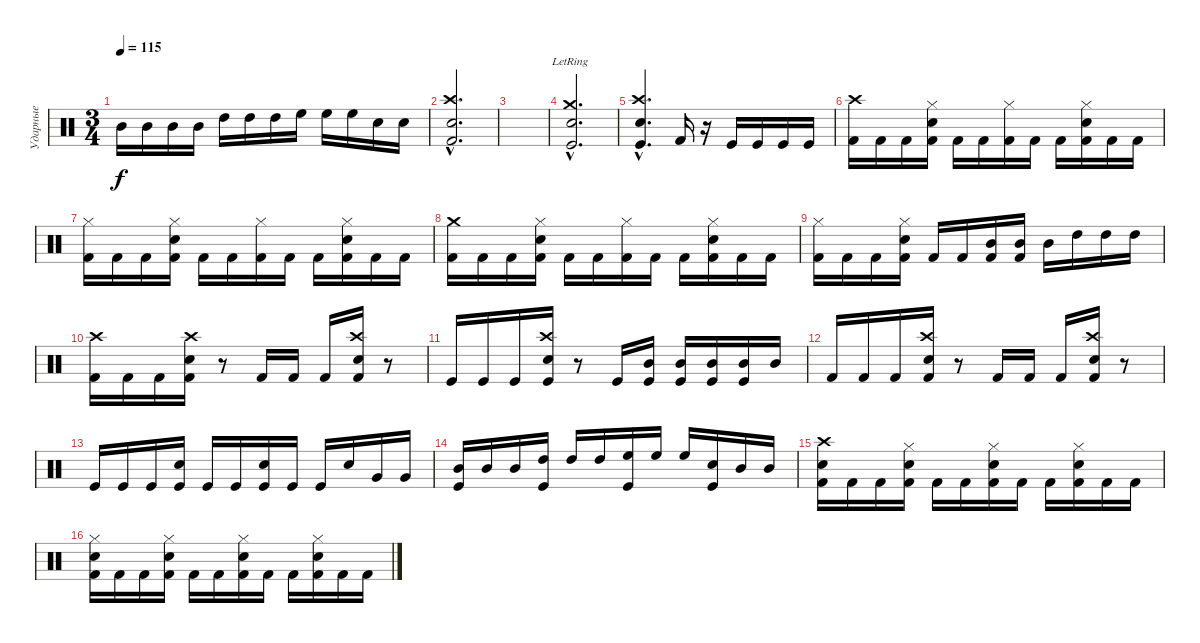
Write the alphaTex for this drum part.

\track ("Ударные" "Ударные") {instrument percussion}
\staff {score}
\articulation defaults
\ts (3 4)
\tempo 115
\clef neutral
\ks c "Mid Tom (hit)".16{dy f} "Mid Tom (hit)".16 "Mid Tom (hit)".16 "Mid Tom (hit)".16 "High Tom (hit)".16 "High Tom (hit)".16 "High Tom (hit)".16 "High Floor Tom (hit)".16 "High Floor Tom (hit)".16 "High Floor Tom (hit)".16 "Electric Snare (hit)".16 "Electric Snare (hit)".16
|
("Crash high (hit)"{hac} "Electric Snare (hit)"{hac} "Kick (hit) 2"{hac}).2{d} |
|
("Crash medium (hit)"{hac lr} "Electric Snare (hit)"{hac lr} "Kick (hit)"{hac lr}).2{d} |
("Crash high (hit)"{hac} "Electric Snare (hit)"{hac} "Kick (hit)"{hac}).4{d} "Kick (hit) 2".16 r.16 "Kick (hit)".16 "Kick (hit)".16 "Kick (hit)".16 "Kick (hit)".16 |
("Crash high (hit)" "Kick (hit) 2").16 "Kick (hit) 2".16 "Kick (hit) 2".16 ("Hi-Hat (closed)" "Electric Snare (hit)" "Kick (hit) 2").16 "Kick (hit) 2".16 "Kick (hit) 2".16 ("Hi-Hat (closed)" "Kick (hit) 2").16 "Kick (hit) 2".16 "Kick (hit) 2".16 ("Hi-Hat (closed)" "Electric Snare (hit)" "Kick (hit) 2").16 "Kick (hit) 2".16 "Kick (hit) 2".16 |
("Hi-Hat (closed)" "Kick (hit) 2").16 "Kick (hit) 2".16 "Kick (hit) 2".16 ("Hi-Hat (closed)" "Electric Snare (hit)" "Kick (hit) 2").16 "Kick (hit) 2".16 "Kick (hit) 2".16 ("Hi-Hat (closed)" "Kick (hit) 2").16 "Kick (hit) 2".16 "Kick (hit) 2".16 ("Hi-Hat (closed)" "Electric Snare (hit)" "Kick (hit) 2").16 "Kick (hit) 2".16 "Kick (hit) 2".16 |
("Crash medium (hit)" "Kick (hit) 2").16 "Kick (hit) 2".16 "Kick (hit) 2".16 ("Hi-Hat (closed)" "Electric Snare (hit)" "Kick (hit) 2").16 "Kick (hit) 2".16 "Kick (hit) 2".16 ("Hi-Hat (closed)" "Kick (hit) 2").16 "Kick (hit) 2".16 "Kick (hit) 2".16 ("Hi-Hat (closed)" "Electric Snare (hit)" "Kick (hit) 2").16 "Kick (hit) 2".16 "Kick (hit) 2".16 |
("Hi-Hat (closed)" "Kick (hit) 2").16 "Kick (hit) 2".16 "Kick (hit) 2".16 ("Hi-Hat (closed)" "Electric Snare (hit)" "Kick (hit) 2").16 "Kick (hit) 2".16 "Kick (hit) 2".16 ("Mid Tom (hit)" "Kick (hit) 2").16 ("Mid Tom (hit)" "Kick (hit) 2").16 "Mid Tom (hit)".16 "High Tom (hit)".16 "High Tom (hit)".16 "High Tom (hit)".16 |
("Crash high (hit)" "Kick (hit) 2").16 "Kick (hit) 2".16 "Kick (hit) 2".16 ("Crash high (hit)" "Electric Snare (hit)" "Kick (hit) 2").16 r.8 "Kick (hit) 2".16 "Kick (hit) 2".16 "Kick (hit) 2".16 ("Crash high (hit)" "Electric Snare (hit)" "Kick (hit) 2").16 r.8 |
"Kick (hit)".16 "Kick (hit)".16 "Kick (hit)".16 ("Crash high (hit)" "Electric Snare (hit)" "Kick (hit)").16 r.8 "Kick (hit)".16 ("Mid Tom (hit)" "Kick (hit)").16 ("Mid Tom (hit)" "Kick (hit)").16 ("Mid Tom (hit)" "Kick (hit)").16 ("Mid Tom (hit)" "Kick (hit)").16 "Mid Tom (hit)".16 |
"Kick (hit) 2".16 "Kick (hit) 2".16 "Kick (hit) 2".16 ("Crash high (hit)" "Electric Snare (hit)" "Kick (hit) 2").16 r.8 "Kick (hit) 2".16 "Kick (hit) 2".16 "Kick (hit) 2".16 ("Crash high (hit)" "Electric Snare (hit)" "Kick (hit) 2").16 r.8 |
"Kick (hit)".16 "Kick (hit)".16 "Kick (hit)".16 ("Electric Snare (hit)" "Kick (hit)").16 "Kick (hit)".16 "Kick (hit)".16 ("Electric Snare (hit)" "Kick (hit)").16 "Kick (hit)".16 "Kick (hit)".16 "Electric Snare (hit)".16 "Very Low Tom (hit)".16 "Very Low Tom (hit)".16 |
("Mid Tom (hit)" "Kick (hit)").16 "Mid Tom (hit)".16 "Mid Tom (hit)".16 ("High Tom (hit)" "Kick (hit)").16 "High Tom (hit)".16 "High Tom (hit)".16 ("High Floor Tom (hit)" "Kick (hit)").16 "High Floor Tom (hit)".16 "High Floor Tom (hit)".16 ("Electric Snare (hit)" "Kick (hit)").16 "Mid Tom (hit)".16 "Mid Tom (hit)".16 |
("Crash high (hit)" "Electric Snare (hit)" "Kick (hit) 2").16 "Kick (hit) 2".16 "Kick (hit) 2".16 ("Hi-Hat (closed)" "Electric Snare (hit)" "Kick (hit) 2").16 "Kick (hit) 2".16 "Kick (hit) 2".16 ("Hi-Hat (closed)" "Electric Snare (hit)" "Kick (hit) 2").16 "Kick (hit) 2".16 "Kick (hit) 2".16 ("Hi-Hat (closed)" "Electric Snare (hit)" "Kick (hit) 2").16 "Kick (hit) 2".16 "Kick (hit) 2".16 |
("Hi-Hat (closed)" "Electric Snare (hit)" "Kick (hit) 2").16 "Kick (hit) 2".16 "Kick (hit) 2".16 ("Hi-Hat (closed)" "Electric Snare (hit)" "Kick (hit) 2").16 "Kick (hit) 2".16 "Kick (hit) 2".16 ("Hi-Hat (closed)" "Electric Snare (hit)" "Kick (hit) 2").16 "Kick (hit) 2".16 "Kick (hit) 2".16 ("Hi-Hat (closed)" "Electric Snare (hit)" "Kick (hit) 2").16 "Kick (hit) 2".16 "Kick (hit) 2".16
